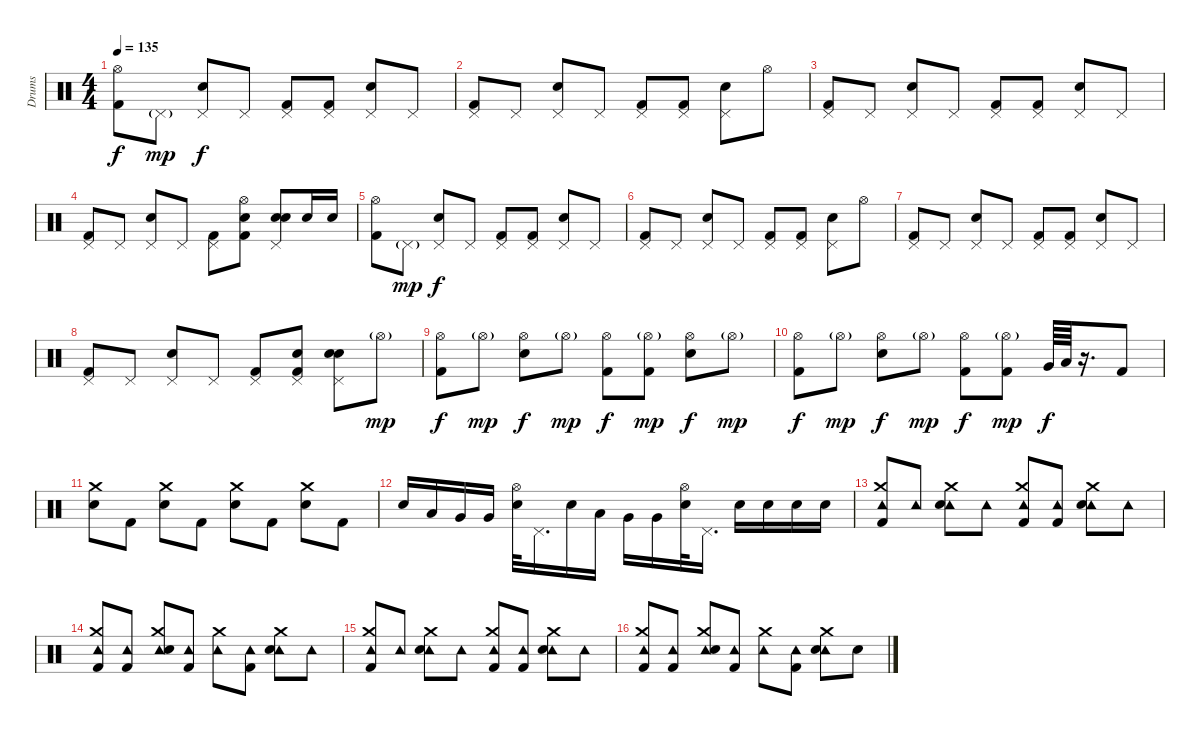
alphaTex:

\track ("Drums" "Drums") {solo instrument percussion bank 34}
\staff {score}
\articulation defaults
\ts (4 4)
\tempo 135
\clef neutral
\ks c
("Hi-Hat (open)" "Kick (hit) 2").8{dy f} "Pedal Hi-Hat (hit)"{g}.8{dy mp} ("Pedal Hi-Hat (hit)" "Electric Snare (hit)").8{dy f} "Pedal Hi-Hat (hit)".8 ("Pedal Hi-Hat (hit)" "Kick (hit) 2").8 ("Pedal Hi-Hat (hit)" "Kick (hit) 2").8 ("Pedal Hi-Hat (hit)" "Electric Snare (hit)").8 "Pedal Hi-Hat (hit)".8 |
("Pedal Hi-Hat (hit)" "Kick (hit) 2").8 "Pedal Hi-Hat (hit)".8 ("Pedal Hi-Hat (hit)" "Electric Snare (hit)").8 "Pedal Hi-Hat (hit)".8 ("Pedal Hi-Hat (hit)" "Kick (hit) 2").8 ("Pedal Hi-Hat (hit)" "Kick (hit) 2").8 ("Pedal Hi-Hat (hit)" "Electric Snare (hit)").8 "Hi-Hat (open)".8 |
("Pedal Hi-Hat (hit)" "Kick (hit) 2").8 "Pedal Hi-Hat (hit)".8 ("Pedal Hi-Hat (hit)" "Electric Snare (hit)").8 "Pedal Hi-Hat (hit)".8 ("Pedal Hi-Hat (hit)" "Kick (hit) 2").8 ("Pedal Hi-Hat (hit)" "Kick (hit) 2").8 ("Pedal Hi-Hat (hit)" "Electric Snare (hit)").8 "Pedal Hi-Hat (hit)".8 |
("Pedal Hi-Hat (hit)" "Kick (hit) 2").8 "Pedal Hi-Hat (hit)".8 ("Pedal Hi-Hat (hit)" "Electric Snare (hit)").8 "Pedal Hi-Hat (hit)".8 ("Pedal Hi-Hat (hit)" "Kick (hit) 2").8 ("Hand Clap (hit)" "Hi-Hat (open)" "Kick (hit) 2").8 ("Hand Clap (hit)" "Pedal Hi-Hat (hit)" "Electric Snare (hit)").8 "Electric Snare (hit)".16 "Electric Snare (hit)".16 |
("Hi-Hat (open)" "Kick (hit) 2").8 "Pedal Hi-Hat (hit)"{g}.8{dy mp} ("Pedal Hi-Hat (hit)" "Electric Snare (hit)").8{dy f} "Pedal Hi-Hat (hit)".8 ("Pedal Hi-Hat (hit)" "Kick (hit) 2").8 ("Pedal Hi-Hat (hit)" "Kick (hit) 2").8 ("Pedal Hi-Hat (hit)" "Electric Snare (hit)").8 "Pedal Hi-Hat (hit)".8 |
("Pedal Hi-Hat (hit)" "Kick (hit) 2").8 "Pedal Hi-Hat (hit)".8 ("Pedal Hi-Hat (hit)" "Electric Snare (hit)").8 "Pedal Hi-Hat (hit)".8 ("Pedal Hi-Hat (hit)" "Kick (hit) 2").8 ("Pedal Hi-Hat (hit)" "Kick (hit) 2").8 ("Pedal Hi-Hat (hit)" "Electric Snare (hit)").8 "Hi-Hat (open)".8 |
("Pedal Hi-Hat (hit)" "Kick (hit) 2").8 "Pedal Hi-Hat (hit)".8 ("Pedal Hi-Hat (hit)" "Electric Snare (hit)").8 "Pedal Hi-Hat (hit)".8 ("Pedal Hi-Hat (hit)" "Kick (hit) 2").8 ("Pedal Hi-Hat (hit)" "Kick (hit) 2").8 ("Pedal Hi-Hat (hit)" "Electric Snare (hit)").8 "Pedal Hi-Hat (hit)".8 |
("Pedal Hi-Hat (hit)" "Kick (hit) 2").8 "Pedal Hi-Hat (hit)".8 ("Pedal Hi-Hat (hit)" "Electric Snare (hit)").8 "Pedal Hi-Hat (hit)".8 ("Pedal Hi-Hat (hit)" "Kick (hit) 2").8 ("Hand Clap (hit)" "Pedal Hi-Hat (hit)" "Kick (hit) 2").8 ("Hand Clap (hit)" "Pedal Hi-Hat (hit)" "Electric Snare (hit)").8 "Hi-Hat (open)"{g}.8{dy mp} |
("Hi-Hat (open)" "Kick (hit) 2").8{dy f} "Hi-Hat (open)"{g}.8{dy mp} ("Hi-Hat (open)" "Electric Snare (hit)").8{dy f} "Hi-Hat (open)"{g}.8{dy mp} ("Hi-Hat (open)" "Kick (hit) 2").8{dy f} ("Hi-Hat (open)"{g} "Kick (hit) 2").8{dy mp} ("Hi-Hat (open)" "Electric Snare (hit)").8{dy f} "Hi-Hat (open)"{g}.8{dy mp} |
("Hi-Hat (open)" "Kick (hit) 2").8{dy f} "Hi-Hat (open)"{g}.8{dy mp} ("Hi-Hat (open)" "Electric Snare (hit)").8{dy f} "Hi-Hat (open)"{g}.8{dy mp} ("Hi-Hat (open)" "Kick (hit) 2").8{dy f} ("Hi-Hat (open)"{g} "Kick (hit) 2").8{dy mp} "Very Low Tom (hit)".64{dy f} "Low Floor Tom (hit)".64 r.16{d} "Kick (hit) 2".8 |
("Crash medium (hit)" "Electric Snare (hit)").8 "Kick (hit) 2".8 ("Crash medium (hit)" "Electric Snare (hit)").8 "Kick (hit) 2".8 ("Crash medium (hit)" "Electric Snare (hit)").8 "Kick (hit) 2".8 ("Crash medium (hit)" "Electric Snare (hit)").8 "Kick (hit) 2".8 |
"Electric Snare (hit)".16 "Low Tom (hit)".16 "Very Low Tom (hit)".16 "Very Low Tom (hit)".16 ("Hi-Hat (open)" "Electric Snare (hit)").32 "Pedal Hi-Hat (hit)".16{d} "Electric Snare (hit)".16 "Low Tom (hit)".16 "Very Low Tom (hit)".16 "Very Low Tom (hit)".16 ("Hi-Hat (open)" "Electric Snare (hit)").32 "Pedal Hi-Hat (hit)".16{d} "Electric Snare (hit)".16 "Electric Snare (hit)".16 "Electric Snare (hit)".16 "Electric Snare (hit)".16 |
("Crash medium (hit)" "Tambourine (hit)" "Kick (hit) 2").8 "Tambourine (hit)".8 ("Crash medium (hit)" "Tambourine (hit)" "Electric Snare (hit)").8 "Tambourine (hit)".8 ("Crash medium (hit)" "Tambourine (hit)" "Kick (hit) 2").8 ("Tambourine (hit)" "Kick (hit) 2").8 ("Crash medium (hit)" "Tambourine (hit)" "Electric Snare (hit)").8 "Tambourine (hit)".8 |
("Crash medium (hit)" "Tambourine (hit)" "Kick (hit) 2").8 ("Tambourine (hit)" "Kick (hit) 2").8 ("Crash medium (hit)" "Tambourine (hit)" "Electric Snare (hit)").8 ("Tambourine (hit)" "Kick (hit) 2").8 ("Crash medium (hit)" "Tambourine (hit)").8 ("Tambourine (hit)" "Kick (hit) 2").8 ("Crash medium (hit)" "Tambourine (hit)" "Electric Snare (hit)").8 "Tambourine (hit)".8 |
("Crash medium (hit)" "Tambourine (hit)" "Kick (hit) 2").8 "Tambourine (hit)".8 ("Crash medium (hit)" "Tambourine (hit)" "Electric Snare (hit)").8 "Tambourine (hit)".8 ("Crash medium (hit)" "Tambourine (hit)" "Kick (hit) 2").8 ("Tambourine (hit)" "Kick (hit) 2").8 ("Crash medium (hit)" "Tambourine (hit)" "Electric Snare (hit)").8 "Tambourine (hit)".8 |
("Crash medium (hit)" "Tambourine (hit)" "Kick (hit) 2").8 ("Tambourine (hit)" "Kick (hit) 2").8 ("Crash medium (hit)" "Tambourine (hit)" "Electric Snare (hit)").8 ("Tambourine (hit)" "Kick (hit) 2").8 ("Crash medium (hit)" "Tambourine (hit)").8 ("Tambourine (hit)" "Kick (hit) 2").8 ("Crash medium (hit)" "Tambourine (hit)" "Electric Snare (hit)").8 "Electric Snare (hit)".8
